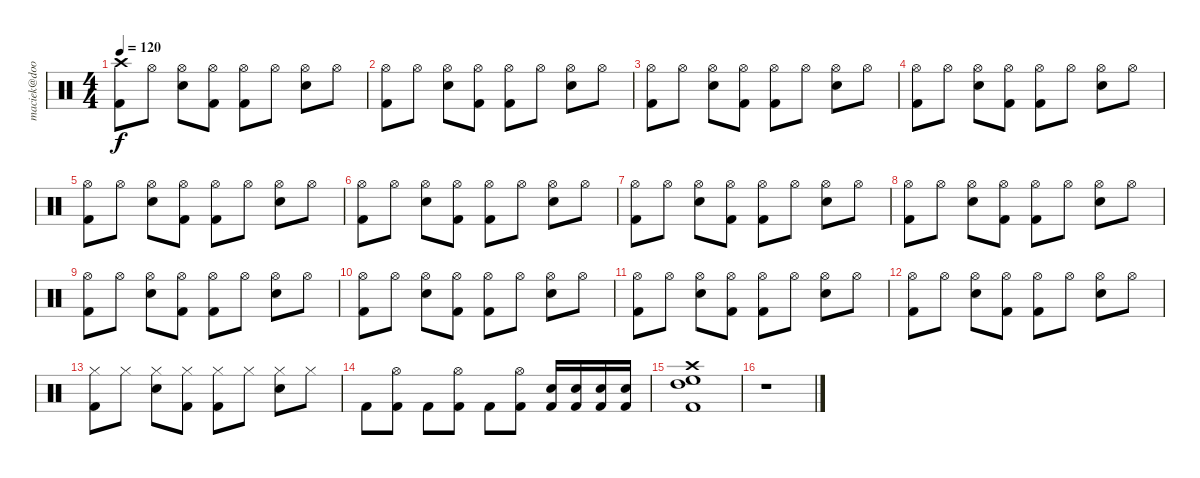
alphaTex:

\track ("maciek@doorpol.com" "maciek@doo") {instrument percussion}
\staff {score}
\articulation defaults
\ts (4 4)
\tempo 120
\clef neutral
\ks c
("Crash high (hit)" "Kick (hit) 2").8{dy f} "Hi-Hat (open)".8 ("Hi-Hat (open)" "Snare (hit) 2").8 ("Hi-Hat (open)" "Kick (hit) 2").8 ("Hi-Hat (open)" "Kick (hit) 2").8 "Hi-Hat (open)".8 ("Hi-Hat (open)" "Snare (hit) 2").8 "Hi-Hat (open)".8 |
("Hi-Hat (open)" "Kick (hit) 2").8 "Hi-Hat (open)".8 ("Hi-Hat (open)" "Snare (hit) 2").8 ("Hi-Hat (open)" "Kick (hit) 2").8 ("Hi-Hat (open)" "Kick (hit) 2").8 "Hi-Hat (open)".8 ("Hi-Hat (open)" "Snare (hit) 2").8 "Hi-Hat (open)".8 |
("Hi-Hat (open)" "Kick (hit) 2").8 "Hi-Hat (open)".8 ("Hi-Hat (open)" "Snare (hit) 2").8 ("Hi-Hat (open)" "Kick (hit) 2").8 ("Hi-Hat (open)" "Kick (hit) 2").8 "Hi-Hat (open)".8 ("Hi-Hat (open)" "Snare (hit) 2").8 "Hi-Hat (open)".8 |
("Hi-Hat (open)" "Kick (hit) 2").8 "Hi-Hat (open)".8 ("Hi-Hat (open)" "Snare (hit) 2").8 ("Hi-Hat (open)" "Kick (hit) 2").8 ("Hi-Hat (open)" "Kick (hit) 2").8 "Hi-Hat (open)".8 ("Hi-Hat (open)" "Snare (hit) 2").8 "Hi-Hat (open)".8 |
("Hi-Hat (open)" "Kick (hit) 2").8 "Hi-Hat (open)".8 ("Hi-Hat (open)" "Snare (hit) 2").8 ("Hi-Hat (open)" "Kick (hit) 2").8 ("Hi-Hat (open)" "Kick (hit) 2").8 "Hi-Hat (open)".8 ("Hi-Hat (open)" "Snare (hit) 2").8 "Hi-Hat (open)".8 |
("Hi-Hat (open)" "Kick (hit) 2").8 "Hi-Hat (open)".8 ("Hi-Hat (open)" "Snare (hit) 2").8 ("Hi-Hat (open)" "Kick (hit) 2").8 ("Hi-Hat (open)" "Kick (hit) 2").8 "Hi-Hat (open)".8 ("Hi-Hat (open)" "Snare (hit) 2").8 "Hi-Hat (open)".8 |
("Hi-Hat (open)" "Kick (hit) 2").8 "Hi-Hat (open)".8 ("Hi-Hat (open)" "Snare (hit) 2").8 ("Hi-Hat (open)" "Kick (hit) 2").8 ("Hi-Hat (open)" "Kick (hit) 2").8 "Hi-Hat (open)".8 ("Hi-Hat (open)" "Snare (hit) 2").8 "Hi-Hat (open)".8 |
("Hi-Hat (open)" "Kick (hit) 2").8 "Hi-Hat (open)".8 ("Hi-Hat (open)" "Snare (hit) 2").8 ("Hi-Hat (open)" "Kick (hit) 2").8 ("Hi-Hat (open)" "Kick (hit) 2").8 "Hi-Hat (open)".8 ("Hi-Hat (open)" "Snare (hit) 2").8 "Hi-Hat (open)".8 |
("Hi-Hat (open)" "Kick (hit) 2").8 "Hi-Hat (open)".8 ("Hi-Hat (open)" "Snare (hit) 2").8 ("Hi-Hat (open)" "Kick (hit) 2").8 ("Hi-Hat (open)" "Kick (hit) 2").8 "Hi-Hat (open)".8 ("Hi-Hat (open)" "Snare (hit) 2").8 "Hi-Hat (open)".8 |
("Hi-Hat (open)" "Kick (hit) 2").8 "Hi-Hat (open)".8 ("Hi-Hat (open)" "Snare (hit) 2").8 ("Hi-Hat (open)" "Kick (hit) 2").8 ("Hi-Hat (open)" "Kick (hit) 2").8 "Hi-Hat (open)".8 ("Hi-Hat (open)" "Snare (hit) 2").8 "Hi-Hat (open)".8 |
("Hi-Hat (open)" "Kick (hit) 2").8 "Hi-Hat (open)".8 ("Hi-Hat (open)" "Snare (hit) 2").8 ("Hi-Hat (open)" "Kick (hit) 2").8 ("Hi-Hat (open)" "Kick (hit) 2").8 "Hi-Hat (open)".8 ("Hi-Hat (open)" "Snare (hit) 2").8 "Hi-Hat (open)".8 |
("Hi-Hat (open)" "Kick (hit) 2").8 "Hi-Hat (open)".8 ("Hi-Hat (open)" "Snare (hit) 2").8 ("Hi-Hat (open)" "Kick (hit) 2").8 ("Hi-Hat (open)" "Kick (hit) 2").8 "Hi-Hat (open)".8 ("Hi-Hat (open)" "Snare (hit) 2").8 "Hi-Hat (open)".8 |
("Hi-Hat (closed)" "Kick (hit) 2").8 "Hi-Hat (closed)".8 ("Hi-Hat (closed)" "Snare (hit) 2").8 ("Hi-Hat (closed)" "Kick (hit) 2").8 ("Hi-Hat (closed)" "Kick (hit) 2").8 "Hi-Hat (closed)".8 ("Hi-Hat (closed)" "Snare (hit) 2").8 "Hi-Hat (closed)".8 |
"Kick (hit) 2".8 ("Kick (hit) 2" "Hi-Hat (open)").8 "Kick (hit) 2".8 ("Kick (hit) 2" "Hi-Hat (open)").8 "Kick (hit) 2".8 ("Kick (hit) 2" "Hi-Hat (open)").8 ("Kick (hit) 2" "Electric Snare (hit)").16 ("Kick (hit) 2" "Electric Snare (hit)").16 ("Kick (hit) 2" "Snare (hit) 2").16 ("Kick (hit) 2" "Snare (hit) 2").16 |
("Kick (hit) 2" "High Tom (hit)" "Crash high (hit)" "High Floor Tom (hit)").1 |
r.1
